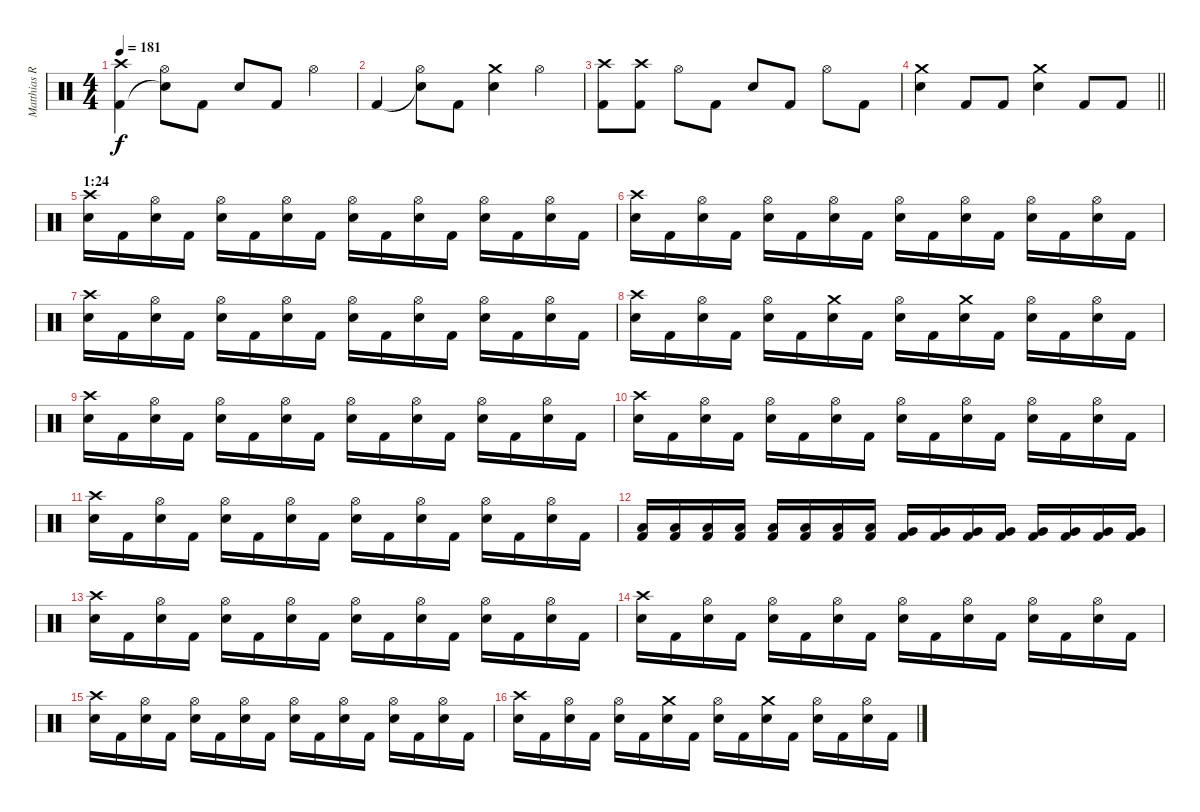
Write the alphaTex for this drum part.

\track ("Matthias R." "Matthias R") {instrument percussion}
\staff {score}
\articulation defaults
\ts (4 4)
\tempo 181
\clef neutral
\ks c
("Kick (hit) 2" "Crash high (hit)").4{dy f} ("Snare (hit)"{t} "Hi-Hat (open)").8 "Kick (hit) 2".8 "Snare (hit) 2".8 "Kick (hit) 2".8 "Hi-Hat (open)".4 |
"Kick (hit) 2".4 ("Snare (hit)"{t} "Hi-Hat (open)").8 "Kick (hit) 2".8 ("Snare (hit) 2" "Crash medium (hit)").4 "Hi-Hat (open)".4 |
("Kick (hit) 2" "Crash high (hit)").8 ("Kick (hit) 2" "Crash high (hit)").8 "Hi-Hat (open)".8 "Kick (hit) 2".8 "Snare (hit) 2".8 "Kick (hit) 2".8 "Hi-Hat (open)".8 "Kick (hit) 2".8 |
\barLineRight lightlight
("Snare (hit) 2" "Crash medium (hit)").4 "Kick (hit) 2".8 "Kick (hit) 2".8 ("Snare (hit) 2" "Crash medium (hit)").4 "Kick (hit) 2".8 "Kick (hit) 2".8 |
\section ("" "1:24")
("Snare (hit) 2" "Crash high (hit)").16 "Kick (hit) 2".16 ("Snare (hit) 2" "Hi-Hat (open)").16 "Kick (hit) 2".16 ("Snare (hit) 2" "Hi-Hat (open)").16 "Kick (hit) 2".16 ("Snare (hit) 2" "Hi-Hat (open)").16 "Kick (hit) 2".16 ("Snare (hit) 2" "Hi-Hat (open)").16 "Kick (hit) 2".16 ("Snare (hit) 2" "Hi-Hat (open)").16 "Kick (hit) 2".16 ("Snare (hit) 2" "Hi-Hat (open)").16 "Kick (hit) 2".16 ("Snare (hit) 2" "Hi-Hat (open)").16 "Kick (hit) 2".16 |
("Snare (hit) 2" "Crash high (hit)").16 "Kick (hit) 2".16 ("Snare (hit) 2" "Hi-Hat (open)").16 "Kick (hit) 2".16 ("Snare (hit) 2" "Hi-Hat (open)").16 "Kick (hit) 2".16 ("Snare (hit) 2" "Hi-Hat (open)").16 "Kick (hit) 2".16 ("Snare (hit) 2" "Hi-Hat (open)").16 "Kick (hit) 2".16 ("Snare (hit) 2" "Hi-Hat (open)").16 "Kick (hit) 2".16 ("Snare (hit) 2" "Hi-Hat (open)").16 "Kick (hit) 2".16 ("Snare (hit) 2" "Hi-Hat (open)").16 "Kick (hit) 2".16 |
("Snare (hit) 2" "Crash high (hit)").16 "Kick (hit) 2".16 ("Snare (hit) 2" "Hi-Hat (open)").16 "Kick (hit) 2".16 ("Snare (hit) 2" "Hi-Hat (open)").16 "Kick (hit) 2".16 ("Snare (hit) 2" "Hi-Hat (open)").16 "Kick (hit) 2".16 ("Snare (hit) 2" "Hi-Hat (open)").16 "Kick (hit) 2".16 ("Snare (hit) 2" "Hi-Hat (open)").16 "Kick (hit) 2".16 ("Snare (hit) 2" "Hi-Hat (open)").16 "Kick (hit) 2".16 ("Snare (hit) 2" "Hi-Hat (open)").16 "Kick (hit) 2".16 |
("Snare (hit) 2" "Crash high (hit)").16 "Kick (hit) 2".16 ("Snare (hit) 2" "Hi-Hat (open)").16 "Kick (hit) 2".16 ("Snare (hit) 2" "Hi-Hat (open)").16 "Kick (hit) 2".16 ("Snare (hit) 2" "Crash medium (hit)").16 "Kick (hit) 2".16 ("Snare (hit) 2" "Hi-Hat (open)").16 "Kick (hit) 2".16 ("Snare (hit) 2" "Crash medium (hit)").16 "Kick (hit) 2".16 ("Snare (hit) 2" "Hi-Hat (open)").16 "Kick (hit) 2".16 ("Snare (hit) 2" "Hi-Hat (open)").16 "Kick (hit) 2".16 |
("Snare (hit) 2" "Crash high (hit)").16 "Kick (hit) 2".16 ("Snare (hit) 2" "Hi-Hat (open)").16 "Kick (hit) 2".16 ("Snare (hit) 2" "Hi-Hat (open)").16 "Kick (hit) 2".16 ("Snare (hit) 2" "Hi-Hat (open)").16 "Kick (hit) 2".16 ("Snare (hit) 2" "Hi-Hat (open)").16 "Kick (hit) 2".16 ("Snare (hit) 2" "Hi-Hat (open)").16 "Kick (hit) 2".16 ("Snare (hit) 2" "Hi-Hat (open)").16 "Kick (hit) 2".16 ("Snare (hit) 2" "Hi-Hat (open)").16 "Kick (hit) 2".16 |
("Snare (hit) 2" "Crash high (hit)").16 "Kick (hit) 2".16 ("Snare (hit) 2" "Hi-Hat (open)").16 "Kick (hit) 2".16 ("Snare (hit) 2" "Hi-Hat (open)").16 "Kick (hit) 2".16 ("Snare (hit) 2" "Hi-Hat (open)").16 "Kick (hit) 2".16 ("Snare (hit) 2" "Hi-Hat (open)").16 "Kick (hit) 2".16 ("Snare (hit) 2" "Hi-Hat (open)").16 "Kick (hit) 2".16 ("Snare (hit) 2" "Hi-Hat (open)").16 "Kick (hit) 2".16 ("Snare (hit) 2" "Hi-Hat (open)").16 "Kick (hit) 2".16 |
("Snare (hit) 2" "Crash high (hit)").16 "Kick (hit) 2".16 ("Snare (hit) 2" "Hi-Hat (open)").16 "Kick (hit) 2".16 ("Snare (hit) 2" "Hi-Hat (open)").16 "Kick (hit) 2".16 ("Snare (hit) 2" "Hi-Hat (open)").16 "Kick (hit) 2".16 ("Snare (hit) 2" "Hi-Hat (open)").16 "Kick (hit) 2".16 ("Snare (hit) 2" "Hi-Hat (open)").16 "Kick (hit) 2".16 ("Snare (hit) 2" "Hi-Hat (open)").16 "Kick (hit) 2".16 ("Snare (hit) 2" "Hi-Hat (open)").16 "Kick (hit) 2".16 |
("Kick (hit) 2" "Low Tom (hit)").16 ("Kick (hit) 2" "Low Tom (hit)").16 ("Kick (hit) 2" "Low Tom (hit)").16 ("Kick (hit) 2" "Low Tom (hit)").16 ("Kick (hit) 2" "Low Tom (hit)").16 ("Kick (hit) 2" "Low Tom (hit)").16 ("Kick (hit) 2" "Low Tom (hit)").16 ("Kick (hit) 2" "Low Tom (hit)").16 ("Kick (hit) 2" "Very Low Tom (hit)").16 ("Kick (hit) 2" "Very Low Tom (hit)").16 ("Kick (hit) 2" "Very Low Tom (hit)").16 ("Kick (hit) 2" "Very Low Tom (hit)").16 ("Kick (hit) 2" "Very Low Tom (hit)").16 ("Kick (hit) 2" "Very Low Tom (hit)").16 ("Kick (hit) 2" "Very Low Tom (hit)").16 ("Kick (hit) 2" "Very Low Tom (hit)").16 |
("Snare (hit) 2" "Crash high (hit)").16 "Kick (hit) 2".16 ("Snare (hit) 2" "Hi-Hat (open)").16 "Kick (hit) 2".16 ("Snare (hit) 2" "Hi-Hat (open)").16 "Kick (hit) 2".16 ("Snare (hit) 2" "Hi-Hat (open)").16 "Kick (hit) 2".16 ("Snare (hit) 2" "Hi-Hat (open)").16 "Kick (hit) 2".16 ("Snare (hit) 2" "Hi-Hat (open)").16 "Kick (hit) 2".16 ("Snare (hit) 2" "Hi-Hat (open)").16 "Kick (hit) 2".16 ("Snare (hit) 2" "Hi-Hat (open)").16 "Kick (hit) 2".16 |
("Snare (hit) 2" "Crash high (hit)").16 "Kick (hit) 2".16 ("Snare (hit) 2" "Hi-Hat (open)").16 "Kick (hit) 2".16 ("Snare (hit) 2" "Hi-Hat (open)").16 "Kick (hit) 2".16 ("Snare (hit) 2" "Hi-Hat (open)").16 "Kick (hit) 2".16 ("Snare (hit) 2" "Hi-Hat (open)").16 "Kick (hit) 2".16 ("Snare (hit) 2" "Hi-Hat (open)").16 "Kick (hit) 2".16 ("Snare (hit) 2" "Hi-Hat (open)").16 "Kick (hit) 2".16 ("Snare (hit) 2" "Hi-Hat (open)").16 "Kick (hit) 2".16 |
("Snare (hit) 2" "Crash high (hit)").16 "Kick (hit) 2".16 ("Snare (hit) 2" "Hi-Hat (open)").16 "Kick (hit) 2".16 ("Snare (hit) 2" "Hi-Hat (open)").16 "Kick (hit) 2".16 ("Snare (hit) 2" "Hi-Hat (open)").16 "Kick (hit) 2".16 ("Snare (hit) 2" "Hi-Hat (open)").16 "Kick (hit) 2".16 ("Snare (hit) 2" "Hi-Hat (open)").16 "Kick (hit) 2".16 ("Snare (hit) 2" "Hi-Hat (open)").16 "Kick (hit) 2".16 ("Snare (hit) 2" "Hi-Hat (open)").16 "Kick (hit) 2".16 |
("Snare (hit) 2" "Crash high (hit)").16 "Kick (hit) 2".16 ("Snare (hit) 2" "Hi-Hat (open)").16 "Kick (hit) 2".16 ("Snare (hit) 2" "Hi-Hat (open)").16 "Kick (hit) 2".16 ("Snare (hit) 2" "Crash medium (hit)").16 "Kick (hit) 2".16 ("Snare (hit) 2" "Hi-Hat (open)").16 "Kick (hit) 2".16 ("Snare (hit) 2" "Crash medium (hit)").16 "Kick (hit) 2".16 ("Snare (hit) 2" "Hi-Hat (open)").16 "Kick (hit) 2".16 ("Snare (hit) 2" "Hi-Hat (open)").16 "Kick (hit) 2".16
